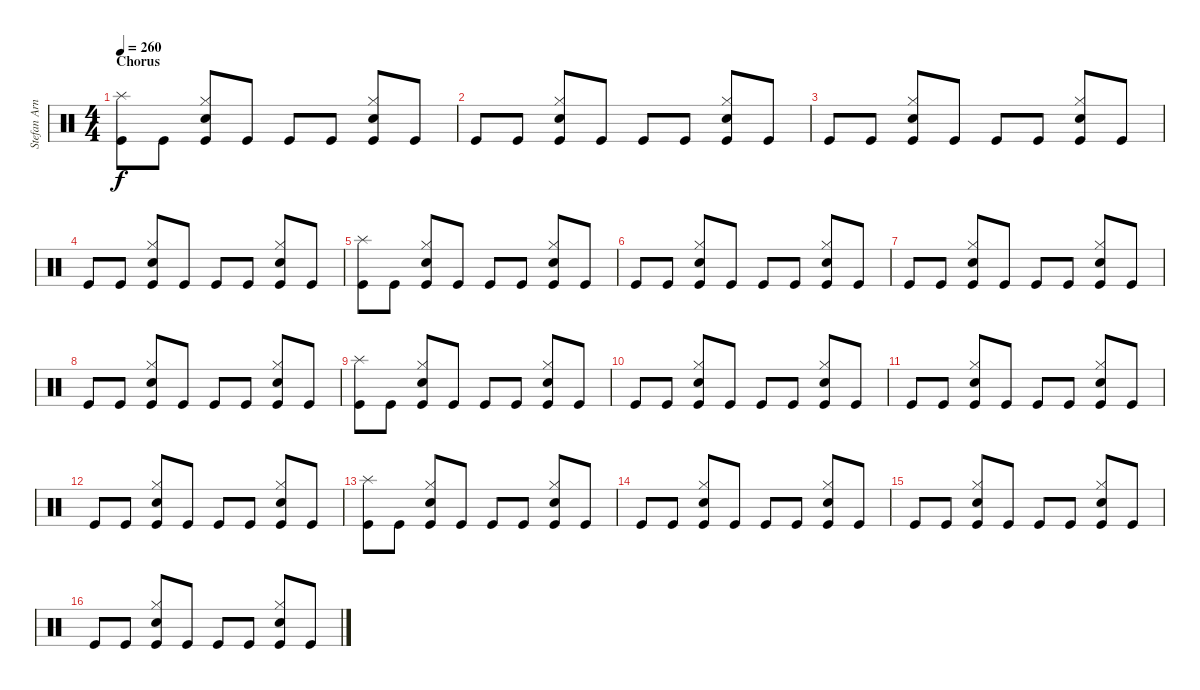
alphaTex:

\track ("Stefan Arnold" "Stefan Arn") {instrument percussion}
\staff {score}
\articulation defaults
\ts (4 4)
\section ("" "Chorus")
\tempo 260
\clef neutral
\ks c
("Splash (hit)" "Kick (hit)").8{dy f} "Kick (hit)".8 ("Hi-Hat (closed)" "Electric Snare (hit)" "Kick (hit)").8 "Kick (hit)".8 "Kick (hit)".8 "Kick (hit)".8 ("Hi-Hat (closed)" "Electric Snare (hit)" "Kick (hit)").8 "Kick (hit)".8 |
"Kick (hit)".8 "Kick (hit)".8 ("Hi-Hat (closed)" "Electric Snare (hit)" "Kick (hit)").8 "Kick (hit)".8 "Kick (hit)".8 "Kick (hit)".8 ("Hi-Hat (closed)" "Electric Snare (hit)" "Kick (hit)").8 "Kick (hit)".8 |
"Kick (hit)".8 "Kick (hit)".8 ("Hi-Hat (closed)" "Electric Snare (hit)" "Kick (hit)").8 "Kick (hit)".8 "Kick (hit)".8 "Kick (hit)".8 ("Hi-Hat (closed)" "Electric Snare (hit)" "Kick (hit)").8 "Kick (hit)".8 |
"Kick (hit)".8 "Kick (hit)".8 ("Hi-Hat (closed)" "Electric Snare (hit)" "Kick (hit)").8 "Kick (hit)".8 "Kick (hit)".8 "Kick (hit)".8 ("Hi-Hat (closed)" "Electric Snare (hit)" "Kick (hit)").8 "Kick (hit)".8 |
("Splash (hit)" "Kick (hit)").8 "Kick (hit)".8 ("Hi-Hat (closed)" "Electric Snare (hit)" "Kick (hit)").8 "Kick (hit)".8 "Kick (hit)".8 "Kick (hit)".8 ("Hi-Hat (closed)" "Electric Snare (hit)" "Kick (hit)").8 "Kick (hit)".8 |
"Kick (hit)".8 "Kick (hit)".8 ("Hi-Hat (closed)" "Electric Snare (hit)" "Kick (hit)").8 "Kick (hit)".8 "Kick (hit)".8 "Kick (hit)".8 ("Hi-Hat (closed)" "Electric Snare (hit)" "Kick (hit)").8 "Kick (hit)".8 |
"Kick (hit)".8 "Kick (hit)".8 ("Hi-Hat (closed)" "Electric Snare (hit)" "Kick (hit)").8 "Kick (hit)".8 "Kick (hit)".8 "Kick (hit)".8 ("Hi-Hat (closed)" "Electric Snare (hit)" "Kick (hit)").8 "Kick (hit)".8 |
"Kick (hit)".8 "Kick (hit)".8 ("Hi-Hat (closed)" "Electric Snare (hit)" "Kick (hit)").8 "Kick (hit)".8 "Kick (hit)".8 "Kick (hit)".8 ("Hi-Hat (closed)" "Electric Snare (hit)" "Kick (hit)").8 "Kick (hit)".8 |
("Splash (hit)" "Kick (hit)").8 "Kick (hit)".8 ("Hi-Hat (closed)" "Electric Snare (hit)" "Kick (hit)").8 "Kick (hit)".8 "Kick (hit)".8 "Kick (hit)".8 ("Hi-Hat (closed)" "Electric Snare (hit)" "Kick (hit)").8 "Kick (hit)".8 |
"Kick (hit)".8 "Kick (hit)".8 ("Hi-Hat (closed)" "Electric Snare (hit)" "Kick (hit)").8 "Kick (hit)".8 "Kick (hit)".8 "Kick (hit)".8 ("Hi-Hat (closed)" "Electric Snare (hit)" "Kick (hit)").8 "Kick (hit)".8 |
"Kick (hit)".8 "Kick (hit)".8 ("Hi-Hat (closed)" "Electric Snare (hit)" "Kick (hit)").8 "Kick (hit)".8 "Kick (hit)".8 "Kick (hit)".8 ("Hi-Hat (closed)" "Electric Snare (hit)" "Kick (hit)").8 "Kick (hit)".8 |
"Kick (hit)".8 "Kick (hit)".8 ("Hi-Hat (closed)" "Electric Snare (hit)" "Kick (hit)").8 "Kick (hit)".8 "Kick (hit)".8 "Kick (hit)".8 ("Hi-Hat (closed)" "Electric Snare (hit)" "Kick (hit)").8 "Kick (hit)".8 |
("Splash (hit)" "Kick (hit)").8 "Kick (hit)".8 ("Hi-Hat (closed)" "Electric Snare (hit)" "Kick (hit)").8 "Kick (hit)".8 "Kick (hit)".8 "Kick (hit)".8 ("Hi-Hat (closed)" "Electric Snare (hit)" "Kick (hit)").8 "Kick (hit)".8 |
"Kick (hit)".8 "Kick (hit)".8 ("Hi-Hat (closed)" "Electric Snare (hit)" "Kick (hit)").8 "Kick (hit)".8 "Kick (hit)".8 "Kick (hit)".8 ("Hi-Hat (closed)" "Electric Snare (hit)" "Kick (hit)").8 "Kick (hit)".8 |
"Kick (hit)".8 "Kick (hit)".8 ("Hi-Hat (closed)" "Electric Snare (hit)" "Kick (hit)").8 "Kick (hit)".8 "Kick (hit)".8 "Kick (hit)".8 ("Hi-Hat (closed)" "Electric Snare (hit)" "Kick (hit)").8 "Kick (hit)".8 |
"Kick (hit)".8 "Kick (hit)".8 ("Hi-Hat (closed)" "Electric Snare (hit)" "Kick (hit)").8 "Kick (hit)".8 "Kick (hit)".8 "Kick (hit)".8 ("Hi-Hat (closed)" "Electric Snare (hit)" "Kick (hit)").8 "Kick (hit)".8
